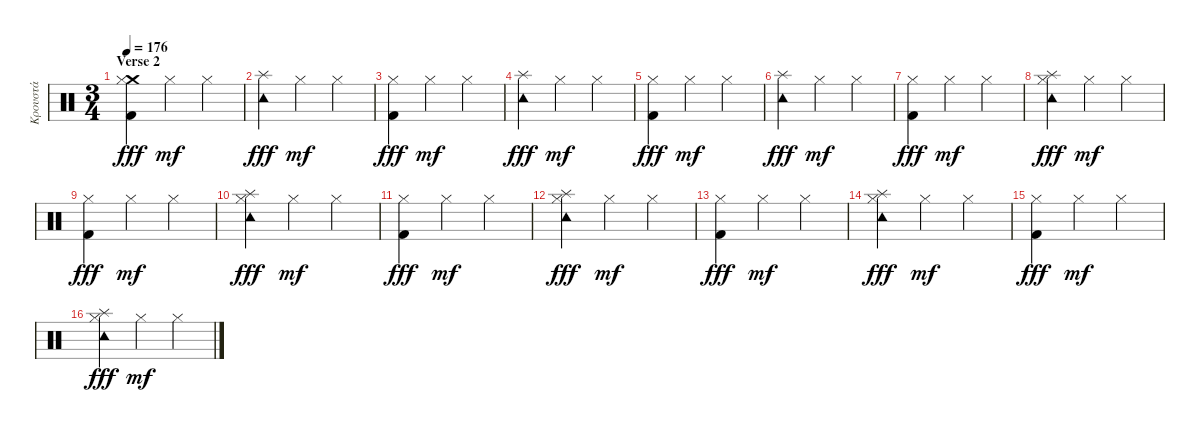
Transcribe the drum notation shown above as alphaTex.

\track ("Κρουστά" "Κρουστά") {instrument percussion}
\staff {score}
\articulation defaults
\ts (3 4)
\section ("" "Verse 2")
\tempo 176
\clef neutral
\ks c
("Crash medium (hit)" "Hi-Hat (closed)" "Kick (hit) 2").4{dy fff} "Hi-Hat (closed)".4{dy mf} "Hi-Hat (closed)".4 |
("Splash (hit)" "Tambourine (hit)").4{dy fff} "Hi-Hat (closed)".4{dy mf} "Hi-Hat (closed)".4 |
("Hi-Hat (closed)" "Kick (hit) 2").4{dy fff} "Hi-Hat (closed)".4{dy mf} "Hi-Hat (closed)".4 |
("Splash (hit)" "Tambourine (hit)").4{dy fff} "Hi-Hat (closed)".4{dy mf} "Hi-Hat (closed)".4 |
("Hi-Hat (closed)" "Kick (hit) 2").4{dy fff} "Hi-Hat (closed)".4{dy mf} "Hi-Hat (closed)".4 |
("Splash (hit)" "Tambourine (hit)").4{dy fff} "Hi-Hat (closed)".4{dy mf} "Hi-Hat (closed)".4 |
("Hi-Hat (closed)" "Kick (hit) 2").4{dy fff} "Hi-Hat (closed)".4{dy mf} "Hi-Hat (closed)".4 |
("Splash (hit)" "Hi-Hat (closed)" "Tambourine (hit)").4{dy fff} "Hi-Hat (closed)".4{dy mf} "Hi-Hat (closed)".4 |
("Hi-Hat (closed)" "Kick (hit) 2").4{dy fff} "Hi-Hat (closed)".4{dy mf} "Hi-Hat (closed)".4 |
("Splash (hit)" "Hi-Hat (closed)" "Tambourine (hit)").4{dy fff} "Hi-Hat (closed)".4{dy mf} "Hi-Hat (closed)".4 |
("Hi-Hat (closed)" "Kick (hit) 2").4{dy fff} "Hi-Hat (closed)".4{dy mf} "Hi-Hat (closed)".4 |
("Splash (hit)" "Hi-Hat (closed)" "Tambourine (hit)").4{dy fff} "Hi-Hat (closed)".4{dy mf} "Hi-Hat (closed)".4 |
("Hi-Hat (closed)" "Kick (hit) 2").4{dy fff} "Hi-Hat (closed)".4{dy mf} "Hi-Hat (closed)".4 |
("Splash (hit)" "Hi-Hat (closed)" "Tambourine (hit)").4{dy fff} "Hi-Hat (closed)".4{dy mf} "Hi-Hat (closed)".4 |
("Hi-Hat (closed)" "Kick (hit) 2").4{dy fff} "Hi-Hat (closed)".4{dy mf} "Hi-Hat (closed)".4 |
("Splash (hit)" "Hi-Hat (closed)" "Tambourine (hit)").4{dy fff} "Hi-Hat (closed)".4{dy mf} "Hi-Hat (closed)".4
